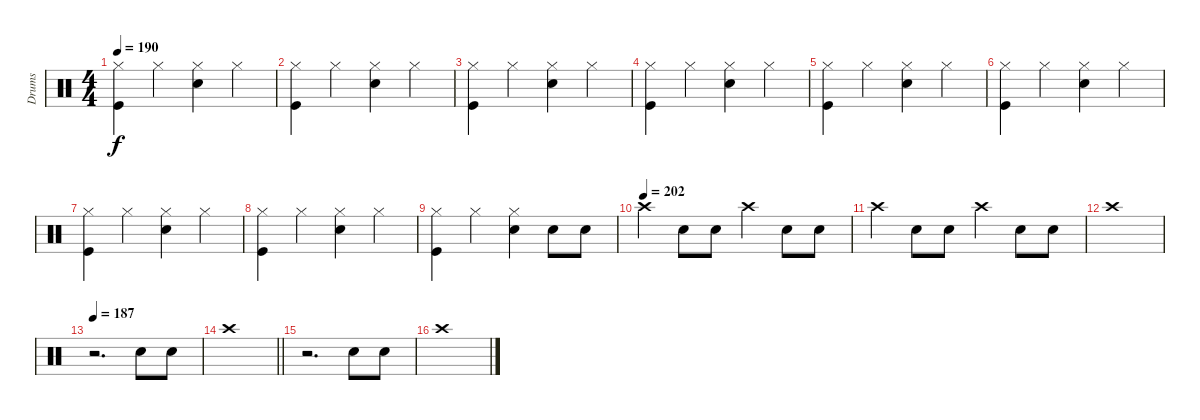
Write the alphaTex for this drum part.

\track ("Drums" "Drums") {instrument percussion}
\staff {score}
\articulation defaults
\ts (4 4)
\tempo 190
\clef neutral
\ks c
("Kick (hit)" "Hi-Hat (closed)").4{dy f} "Hi-Hat (closed)".4 ("Electric Snare (hit)" "Hi-Hat (closed)").4 "Hi-Hat (closed)".4 |
("Kick (hit)" "Hi-Hat (closed)").4 "Hi-Hat (closed)".4 ("Electric Snare (hit)" "Hi-Hat (closed)").4 "Hi-Hat (closed)".4 |
("Kick (hit)" "Hi-Hat (closed)").4 "Hi-Hat (closed)".4 ("Electric Snare (hit)" "Hi-Hat (closed)").4 "Hi-Hat (closed)".4 |
("Kick (hit)" "Hi-Hat (closed)").4 "Hi-Hat (closed)".4 ("Electric Snare (hit)" "Hi-Hat (closed)").4 "Hi-Hat (closed)".4 |
("Kick (hit)" "Hi-Hat (closed)").4 "Hi-Hat (closed)".4 ("Electric Snare (hit)" "Hi-Hat (closed)").4 "Hi-Hat (closed)".4 |
("Kick (hit)" "Hi-Hat (closed)").4 "Hi-Hat (closed)".4 ("Electric Snare (hit)" "Hi-Hat (closed)").4 "Hi-Hat (closed)".4 |
("Kick (hit)" "Hi-Hat (closed)").4 "Hi-Hat (closed)".4 ("Electric Snare (hit)" "Hi-Hat (closed)").4 "Hi-Hat (closed)".4 |
("Kick (hit)" "Hi-Hat (closed)").4 "Hi-Hat (closed)".4 ("Electric Snare (hit)" "Hi-Hat (closed)").4 "Hi-Hat (closed)".4 |
("Kick (hit)" "Hi-Hat (closed)").4 "Hi-Hat (closed)".4 ("Electric Snare (hit)" "Hi-Hat (closed)").4 "Electric Snare (hit)".8 "Electric Snare (hit)".8 |
\tempo (202)
"Crash high (hit)".4 "Electric Snare (hit)".8 "Electric Snare (hit)".8 "Crash high (hit)".4 "Electric Snare (hit)".8 "Electric Snare (hit)".8 |
"Crash high (hit)".4 "Electric Snare (hit)".8 "Snare (hit) 2".8 "Crash high (hit)".4 "Electric Snare (hit)".8 "Electric Snare (hit)".8 |
"Crash high (hit)".1 |
\tempo 187
r.2{d} "Electric Snare (hit)".8 "Electric Snare (hit)".8 |
\barLineRight lightlight "Crash high (hit)".1
|
r.2{d} "Electric Snare (hit)".8 "Electric Snare (hit)".8 |
"Crash high (hit)".1
